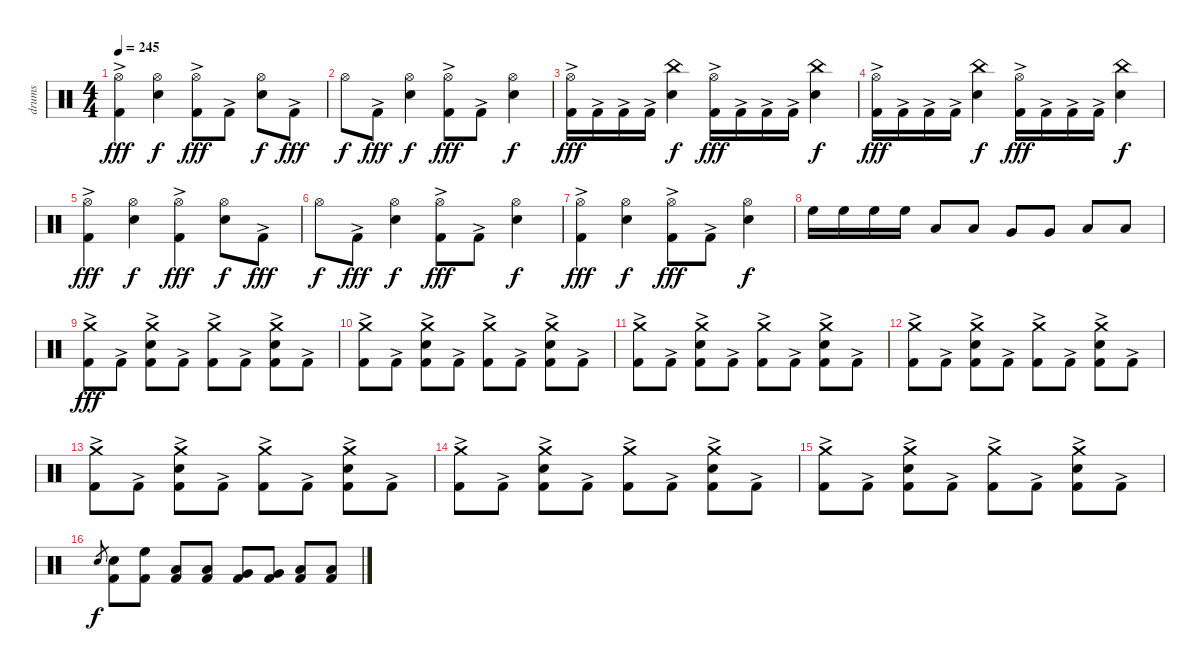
\track ("drums" "drums") {instrument percussion}
\staff {score}
\articulation defaults
\ts (4 4)
\tempo 245
\clef neutral
\ks c
("Hi-Hat (open)" "Kick (hit) 2"{ac}).4{dy fff} ("Hi-Hat (open)" "Electric Snare (hit)").4{dy f} ("Hi-Hat (open)" "Kick (hit) 2"{ac}).8{dy fff} "Kick (hit) 2"{ac}.8 ("Hi-Hat (open)" "Electric Snare (hit)").8{dy f} "Kick (hit) 2"{ac}.8{dy fff} |
"Hi-Hat (open)".8{dy f} "Kick (hit) 2"{ac}.8{dy fff} ("Hi-Hat (open)" "Electric Snare (hit)").4{dy f} ("Hi-Hat (open)" "Kick (hit) 2"{ac}).8{dy fff} "Kick (hit) 2"{ac}.8 ("Hi-Hat (open)" "Electric Snare (hit)").4{dy f} |
("Hi-Hat (open)" "Kick (hit) 2"{ac}).16{dy fff} "Kick (hit) 2"{ac}.16 "Kick (hit) 2"{ac}.16 "Kick (hit) 2"{ac}.16 ("China (hit)" "Electric Snare (hit)").4{dy f} ("Hi-Hat (open)" "Kick (hit) 2"{ac}).16{dy fff} "Kick (hit) 2"{ac}.16 "Kick (hit) 2"{ac}.16 "Kick (hit) 2"{ac}.16 ("China (hit)" "Electric Snare (hit)").4{dy f} |
("Hi-Hat (open)" "Kick (hit) 2"{ac}).16{dy fff} "Kick (hit) 2"{ac}.16 "Kick (hit) 2"{ac}.16 "Kick (hit) 2"{ac}.16 ("China (hit)" "Electric Snare (hit)").4{dy f} ("Hi-Hat (open)" "Kick (hit) 2"{ac}).16{dy fff} "Kick (hit) 2"{ac}.16 "Kick (hit) 2"{ac}.16 "Kick (hit) 2"{ac}.16 ("China (hit)" "Electric Snare (hit)").4{dy f} |
("Hi-Hat (open)" "Kick (hit) 2"{ac}).4{dy fff} ("Hi-Hat (open)" "Electric Snare (hit)").4{dy f} ("Hi-Hat (open)" "Kick (hit) 2"{ac}).4{dy fff} ("Hi-Hat (open)" "Electric Snare (hit)").8{dy f} "Kick (hit) 2"{ac}.8{dy fff} |
"Hi-Hat (open)".8{dy f} "Kick (hit) 2"{ac}.8{dy fff} ("Hi-Hat (open)" "Electric Snare (hit)").4{dy f} ("Hi-Hat (open)" "Kick (hit) 2"{ac}).8{dy fff} "Kick (hit) 2"{ac}.8 ("Hi-Hat (open)" "Electric Snare (hit)").4{dy f} |
("Hi-Hat (open)" "Kick (hit) 2"{ac}).4{dy fff} ("Hi-Hat (open)" "Electric Snare (hit)").4{dy f} ("Hi-Hat (open)" "Kick (hit) 2"{ac}).8{dy fff} "Kick (hit) 2"{ac}.8 ("Hi-Hat (open)" "Electric Snare (hit)").4{dy f} |
"High Floor Tom (hit)".16 "High Floor Tom (hit)".16 "High Floor Tom (hit)".16 "High Floor Tom (hit)".16 "Low Tom (hit)".8 "Low Tom (hit)".8 "Very Low Tom (hit)".8 "Very Low Tom (hit)".8 "Low Floor Tom (hit)".8 "Low Floor Tom (hit)".8 |
("Crash medium (hit)" "Kick (hit) 2"{ac}).8{dy fff} "Kick (hit) 2"{ac}.8 ("Crash medium (hit)" "Electric Snare (hit)" "Kick (hit) 2"{ac}).8 "Kick (hit) 2"{ac}.8 ("Crash medium (hit)" "Kick (hit) 2"{ac}).8 "Kick (hit) 2"{ac}.8 ("Crash medium (hit)" "Electric Snare (hit)" "Kick (hit) 2"{ac}).8 "Kick (hit) 2"{ac}.8 |
("Crash medium (hit)" "Kick (hit) 2"{ac}).8 "Kick (hit) 2"{ac}.8 ("Crash medium (hit)" "Electric Snare (hit)" "Kick (hit) 2"{ac}).8 "Kick (hit) 2"{ac}.8 ("Crash medium (hit)" "Kick (hit) 2"{ac}).8 "Kick (hit) 2"{ac}.8 ("Crash medium (hit)" "Electric Snare (hit)" "Kick (hit) 2"{ac}).8 "Kick (hit) 2"{ac}.8 |
("Crash medium (hit)" "Kick (hit) 2"{ac}).8 "Kick (hit) 2"{ac}.8 ("Crash medium (hit)" "Electric Snare (hit)" "Kick (hit) 2"{ac}).8 "Kick (hit) 2"{ac}.8 ("Crash medium (hit)" "Kick (hit) 2"{ac}).8 "Kick (hit) 2"{ac}.8 ("Crash medium (hit)" "Electric Snare (hit)" "Kick (hit) 2"{ac}).8 "Kick (hit) 2"{ac}.8 |
("Crash medium (hit)" "Kick (hit) 2"{ac}).8 "Kick (hit) 2"{ac}.8 ("Crash medium (hit)" "Electric Snare (hit)" "Kick (hit) 2"{ac}).8 "Kick (hit) 2"{ac}.8 ("Crash medium (hit)" "Kick (hit) 2"{ac}).8 "Kick (hit) 2"{ac}.8 ("Crash medium (hit)" "Electric Snare (hit)" "Kick (hit) 2"{ac}).8 "Kick (hit) 2"{ac}.8 |
("Crash medium (hit)" "Kick (hit) 2"{ac}).8 "Kick (hit) 2"{ac}.8 ("Crash medium (hit)" "Electric Snare (hit)" "Kick (hit) 2"{ac}).8 "Kick (hit) 2"{ac}.8 ("Crash medium (hit)" "Kick (hit) 2"{ac}).8 "Kick (hit) 2"{ac}.8 ("Crash medium (hit)" "Electric Snare (hit)" "Kick (hit) 2"{ac}).8 "Kick (hit) 2"{ac}.8 |
("Crash medium (hit)" "Kick (hit) 2"{ac}).8 "Kick (hit) 2"{ac}.8 ("Crash medium (hit)" "Electric Snare (hit)" "Kick (hit) 2"{ac}).8 "Kick (hit) 2"{ac}.8 ("Crash medium (hit)" "Kick (hit) 2"{ac}).8 "Kick (hit) 2"{ac}.8 ("Crash medium (hit)" "Electric Snare (hit)" "Kick (hit) 2"{ac}).8 "Kick (hit) 2"{ac}.8 |
("Crash medium (hit)" "Kick (hit) 2"{ac}).8 "Kick (hit) 2"{ac}.8 ("Crash medium (hit)" "Electric Snare (hit)" "Kick (hit) 2"{ac}).8 "Kick (hit) 2"{ac}.8 ("Crash medium (hit)" "Kick (hit) 2"{ac}).8 "Kick (hit) 2"{ac}.8 ("Crash medium (hit)" "Electric Snare (hit)" "Kick (hit) 2"{ac}).8 "Kick (hit) 2"{ac}.8 |
"Electric Snare (hit)".8{gr dy f} ("Electric Snare (hit)" "Kick (hit) 2").8 ("High Floor Tom (hit)" "Kick (hit) 2").8 ("Low Tom (hit)" "Kick (hit) 2").8 ("Low Tom (hit)" "Kick (hit) 2").8 ("Very Low Tom (hit)" "Kick (hit) 2").8 ("Very Low Tom (hit)" "Kick (hit) 2").8 ("Low Floor Tom (hit)" "Kick (hit) 2").8 ("Low Floor Tom (hit)" "Kick (hit) 2").8
